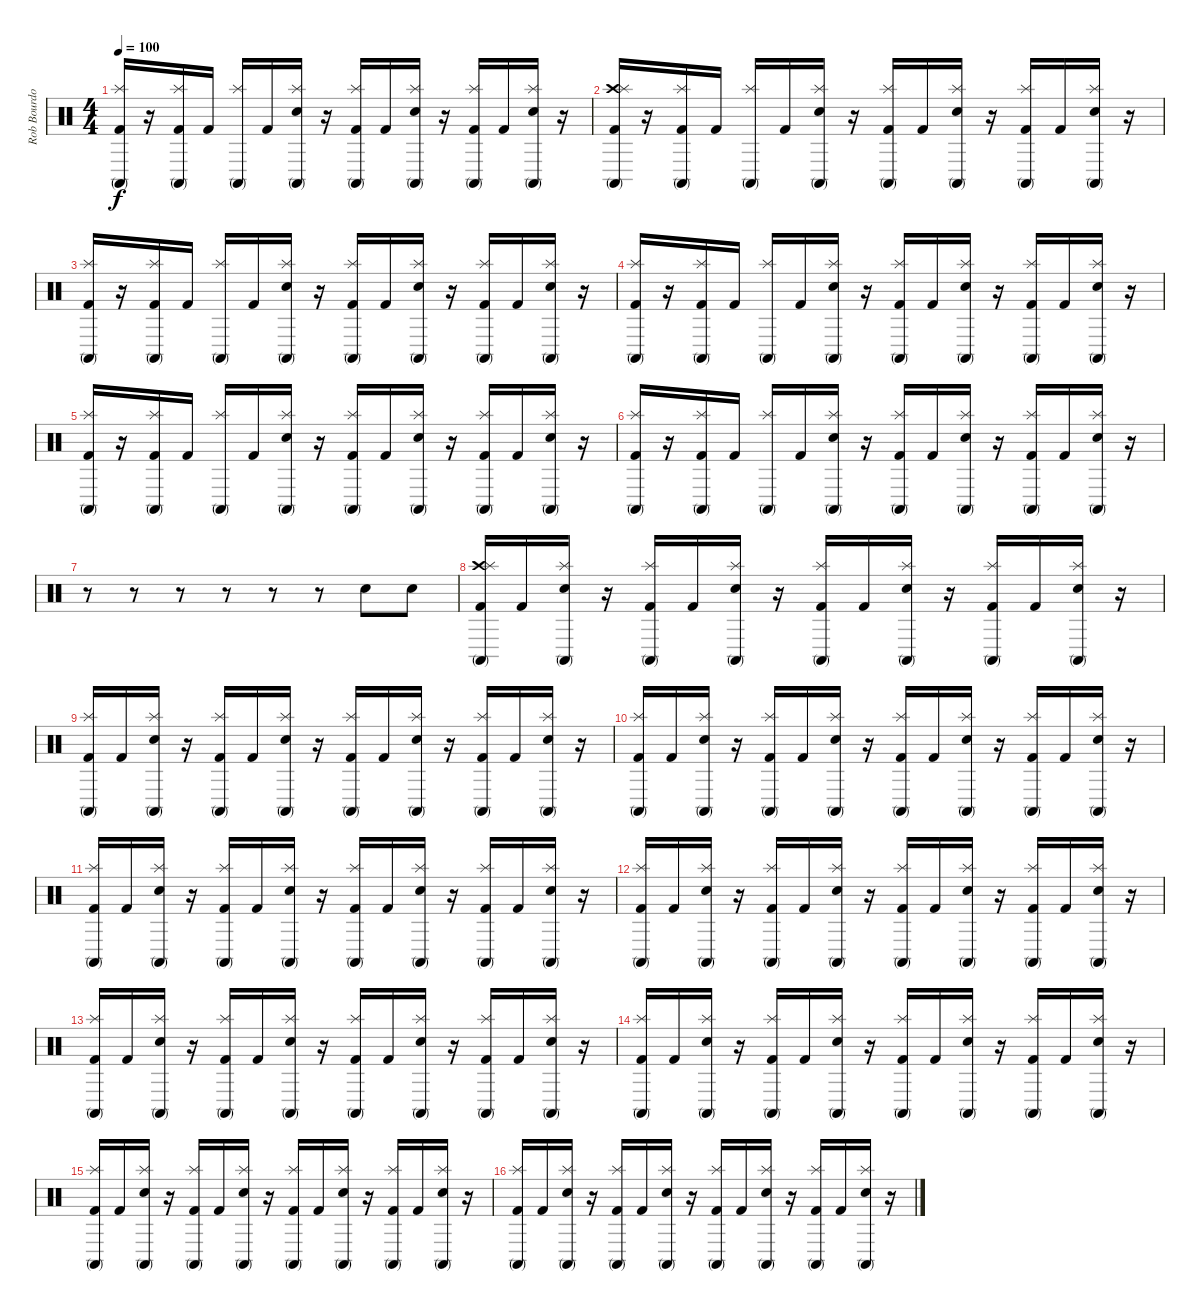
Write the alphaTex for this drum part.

\track ("Rob Bourdon" "Rob Bourdo") {instrument percussion}
\staff {score}
\articulation defaults
\ts (4 4)
\tempo 100
\clef neutral
\ks c
("Conga high (mute)" "Splash (hit)" "Kick (hit) 2").16{dy f} r.16 ("Conga high (mute)" "Splash (hit)" "Kick (hit) 2").16 "Kick (hit) 2".16 ("Conga high (mute)" "Splash (hit)").16 "Kick (hit) 2".16 ("Conga high (mute)" "Splash (hit)" "Electric Snare (hit)").16 r.16 ("Conga high (mute)" "Splash (hit)" "Kick (hit) 2").16 "Kick (hit) 2".16 ("Conga high (mute)" "Splash (hit)" "Electric Snare (hit)").16 r.16 ("Conga high (mute)" "Splash (hit)" "Kick (hit) 2").16 "Kick (hit) 2".16 ("Conga high (mute)" "Splash (hit)" "Electric Snare (hit)").16 r.16 |
("Conga high (mute)" "Crash high (hit)" "Splash (hit)" "Kick (hit) 2").16 r.16 ("Conga high (mute)" "Splash (hit)" "Kick (hit) 2").16 "Kick (hit) 2".16 ("Conga high (mute)" "Splash (hit)").16 "Kick (hit) 2".16 ("Conga high (mute)" "Splash (hit)" "Electric Snare (hit)").16 r.16 ("Conga high (mute)" "Splash (hit)" "Kick (hit) 2").16 "Kick (hit) 2".16 ("Conga high (mute)" "Splash (hit)" "Electric Snare (hit)").16 r.16 ("Conga high (mute)" "Splash (hit)" "Kick (hit) 2").16 "Kick (hit) 2".16 ("Conga high (mute)" "Splash (hit)" "Electric Snare (hit)").16 r.16 |
("Conga high (mute)" "Splash (hit)" "Kick (hit) 2").16 r.16 ("Conga high (mute)" "Splash (hit)" "Kick (hit) 2").16 "Kick (hit) 2".16 ("Conga high (mute)" "Splash (hit)").16 "Kick (hit) 2".16 ("Conga high (mute)" "Splash (hit)" "Electric Snare (hit)").16 r.16 ("Conga high (mute)" "Splash (hit)" "Kick (hit) 2").16 "Kick (hit) 2".16 ("Conga high (mute)" "Splash (hit)" "Electric Snare (hit)").16 r.16 ("Conga high (mute)" "Splash (hit)" "Kick (hit) 2").16 "Kick (hit) 2".16 ("Conga high (mute)" "Splash (hit)" "Electric Snare (hit)").16 r.16 |
("Conga high (mute)" "Splash (hit)" "Kick (hit) 2").16 r.16 ("Conga high (mute)" "Splash (hit)" "Kick (hit) 2").16 "Kick (hit) 2".16 ("Conga high (mute)" "Splash (hit)").16 "Kick (hit) 2".16 ("Conga high (mute)" "Splash (hit)" "Electric Snare (hit)").16 r.16 ("Conga high (mute)" "Splash (hit)" "Kick (hit) 2").16 "Kick (hit) 2".16 ("Conga high (mute)" "Splash (hit)" "Electric Snare (hit)").16 r.16 ("Conga high (mute)" "Splash (hit)" "Kick (hit) 2").16 "Kick (hit) 2".16 ("Conga high (mute)" "Splash (hit)" "Electric Snare (hit)").16 r.16 |
("Conga high (mute)" "Splash (hit)" "Kick (hit) 2").16 r.16 ("Conga high (mute)" "Splash (hit)" "Kick (hit) 2").16 "Kick (hit) 2".16 ("Conga high (mute)" "Splash (hit)").16 "Kick (hit) 2".16 ("Conga high (mute)" "Splash (hit)" "Electric Snare (hit)").16 r.16 ("Conga high (mute)" "Splash (hit)" "Kick (hit) 2").16 "Kick (hit) 2".16 ("Conga high (mute)" "Splash (hit)" "Electric Snare (hit)").16 r.16 ("Conga high (mute)" "Splash (hit)" "Kick (hit) 2").16 "Kick (hit) 2".16 ("Conga high (mute)" "Splash (hit)" "Electric Snare (hit)").16 r.16 |
("Conga high (mute)" "Splash (hit)" "Kick (hit) 2").16 r.16 ("Conga high (mute)" "Splash (hit)" "Kick (hit) 2").16 "Kick (hit) 2".16 ("Conga high (mute)" "Splash (hit)").16 "Kick (hit) 2".16 ("Conga high (mute)" "Splash (hit)" "Electric Snare (hit)").16 r.16 ("Conga high (mute)" "Splash (hit)" "Kick (hit) 2").16 "Kick (hit) 2".16 ("Conga high (mute)" "Splash (hit)" "Electric Snare (hit)").16 r.16 ("Conga high (mute)" "Splash (hit)" "Kick (hit) 2").16 "Kick (hit) 2".16 ("Conga high (mute)" "Splash (hit)" "Electric Snare (hit)").16 r.16 |
r.8 r.8 r.8 r.8 r.8 r.8 "Electric Snare (hit)".8 "Electric Snare (hit)".8 |
("Conga high (mute)" "Crash high (hit)" "Splash (hit)" "Kick (hit) 2").16 "Kick (hit) 2".16 ("Conga high (mute)" "Splash (hit)" "Electric Snare (hit)").16 r.16 ("Conga high (mute)" "Splash (hit)" "Kick (hit) 2").16 "Kick (hit) 2".16 ("Conga high (mute)" "Splash (hit)" "Electric Snare (hit)").16 r.16 ("Conga high (mute)" "Splash (hit)" "Kick (hit) 2").16 "Kick (hit) 2".16 ("Conga high (mute)" "Splash (hit)" "Electric Snare (hit)").16 r.16 ("Conga high (mute)" "Splash (hit)" "Kick (hit) 2").16 "Kick (hit) 2".16 ("Conga high (mute)" "Splash (hit)" "Electric Snare (hit)").16 r.16 |
("Conga high (mute)" "Splash (hit)" "Kick (hit) 2").16 "Kick (hit) 2".16 ("Conga high (mute)" "Splash (hit)" "Electric Snare (hit)").16 r.16 ("Conga high (mute)" "Splash (hit)" "Kick (hit) 2").16 "Kick (hit) 2".16 ("Conga high (mute)" "Splash (hit)" "Electric Snare (hit)").16 r.16 ("Conga high (mute)" "Splash (hit)" "Kick (hit) 2").16 "Kick (hit) 2".16 ("Conga high (mute)" "Splash (hit)" "Electric Snare (hit)").16 r.16 ("Conga high (mute)" "Splash (hit)" "Kick (hit) 2").16 "Kick (hit) 2".16 ("Conga high (mute)" "Splash (hit)" "Electric Snare (hit)").16 r.16 |
("Conga high (mute)" "Splash (hit)" "Kick (hit) 2").16 "Kick (hit) 2".16 ("Conga high (mute)" "Splash (hit)" "Electric Snare (hit)").16 r.16 ("Conga high (mute)" "Splash (hit)" "Kick (hit) 2").16 "Kick (hit) 2".16 ("Conga high (mute)" "Splash (hit)" "Electric Snare (hit)").16 r.16 ("Conga high (mute)" "Splash (hit)" "Kick (hit) 2").16 "Kick (hit) 2".16 ("Conga high (mute)" "Splash (hit)" "Electric Snare (hit)").16 r.16 ("Conga high (mute)" "Splash (hit)" "Kick (hit) 2").16 "Kick (hit) 2".16 ("Conga high (mute)" "Splash (hit)" "Electric Snare (hit)").16 r.16 |
("Conga high (mute)" "Splash (hit)" "Kick (hit) 2").16 "Kick (hit) 2".16 ("Conga high (mute)" "Splash (hit)" "Electric Snare (hit)").16 r.16 ("Conga high (mute)" "Splash (hit)" "Kick (hit) 2").16 "Kick (hit) 2".16 ("Conga high (mute)" "Splash (hit)" "Electric Snare (hit)").16 r.16 ("Conga high (mute)" "Splash (hit)" "Kick (hit) 2").16 "Kick (hit) 2".16 ("Conga high (mute)" "Splash (hit)" "Electric Snare (hit)").16 r.16 ("Conga high (mute)" "Splash (hit)" "Kick (hit) 2").16 "Kick (hit) 2".16 ("Conga high (mute)" "Splash (hit)" "Electric Snare (hit)").16 r.16 |
("Conga high (mute)" "Splash (hit)" "Kick (hit) 2").16 "Kick (hit) 2".16 ("Conga high (mute)" "Splash (hit)" "Electric Snare (hit)").16 r.16 ("Conga high (mute)" "Splash (hit)" "Kick (hit) 2").16 "Kick (hit) 2".16 ("Conga high (mute)" "Splash (hit)" "Electric Snare (hit)").16 r.16 ("Conga high (mute)" "Splash (hit)" "Kick (hit) 2").16 "Kick (hit) 2".16 ("Conga high (mute)" "Splash (hit)" "Electric Snare (hit)").16 r.16 ("Conga high (mute)" "Splash (hit)" "Kick (hit) 2").16 "Kick (hit) 2".16 ("Conga high (mute)" "Splash (hit)" "Electric Snare (hit)").16 r.16 |
("Conga high (mute)" "Splash (hit)" "Kick (hit) 2").16 "Kick (hit) 2".16 ("Conga high (mute)" "Splash (hit)" "Electric Snare (hit)").16 r.16 ("Conga high (mute)" "Splash (hit)" "Kick (hit) 2").16 "Kick (hit) 2".16 ("Conga high (mute)" "Splash (hit)" "Electric Snare (hit)").16 r.16 ("Conga high (mute)" "Splash (hit)" "Kick (hit) 2").16 "Kick (hit) 2".16 ("Conga high (mute)" "Splash (hit)" "Electric Snare (hit)").16 r.16 ("Conga high (mute)" "Splash (hit)" "Kick (hit) 2").16 "Kick (hit) 2".16 ("Conga high (mute)" "Splash (hit)" "Electric Snare (hit)").16 r.16 |
("Conga high (mute)" "Splash (hit)" "Kick (hit) 2").16 "Kick (hit) 2".16 ("Conga high (mute)" "Splash (hit)" "Electric Snare (hit)").16 r.16 ("Conga high (mute)" "Splash (hit)" "Kick (hit) 2").16 "Kick (hit) 2".16 ("Conga high (mute)" "Splash (hit)" "Electric Snare (hit)").16 r.16 ("Conga high (mute)" "Splash (hit)" "Kick (hit) 2").16 "Kick (hit) 2".16 ("Conga high (mute)" "Splash (hit)" "Electric Snare (hit)").16 r.16 ("Conga high (mute)" "Splash (hit)" "Kick (hit) 2").16 "Kick (hit) 2".16 ("Conga high (mute)" "Splash (hit)" "Electric Snare (hit)").16 r.16 |
("Conga high (mute)" "Splash (hit)" "Kick (hit) 2").16 "Kick (hit) 2".16 ("Conga high (mute)" "Splash (hit)" "Electric Snare (hit)").16 r.16 ("Conga high (mute)" "Splash (hit)" "Kick (hit) 2").16 "Kick (hit) 2".16 ("Conga high (mute)" "Splash (hit)" "Electric Snare (hit)").16 r.16 ("Conga high (mute)" "Splash (hit)" "Kick (hit) 2").16 "Kick (hit) 2".16 ("Conga high (mute)" "Splash (hit)" "Electric Snare (hit)").16 r.16 ("Conga high (mute)" "Splash (hit)" "Kick (hit) 2").16 "Kick (hit) 2".16 ("Conga high (mute)" "Splash (hit)" "Electric Snare (hit)").16 r.16 |
("Conga high (mute)" "Splash (hit)" "Kick (hit) 2").16 "Kick (hit) 2".16 ("Conga high (mute)" "Splash (hit)" "Electric Snare (hit)").16 r.16 ("Conga high (mute)" "Splash (hit)" "Kick (hit) 2").16 "Kick (hit) 2".16 ("Conga high (mute)" "Splash (hit)" "Electric Snare (hit)").16 r.16 ("Conga high (mute)" "Splash (hit)" "Kick (hit) 2").16 "Kick (hit) 2".16 ("Conga high (mute)" "Splash (hit)" "Electric Snare (hit)").16 r.16 ("Conga high (mute)" "Splash (hit)" "Kick (hit) 2").16 "Kick (hit) 2".16 ("Conga high (mute)" "Splash (hit)" "Electric Snare (hit)").16 r.16
